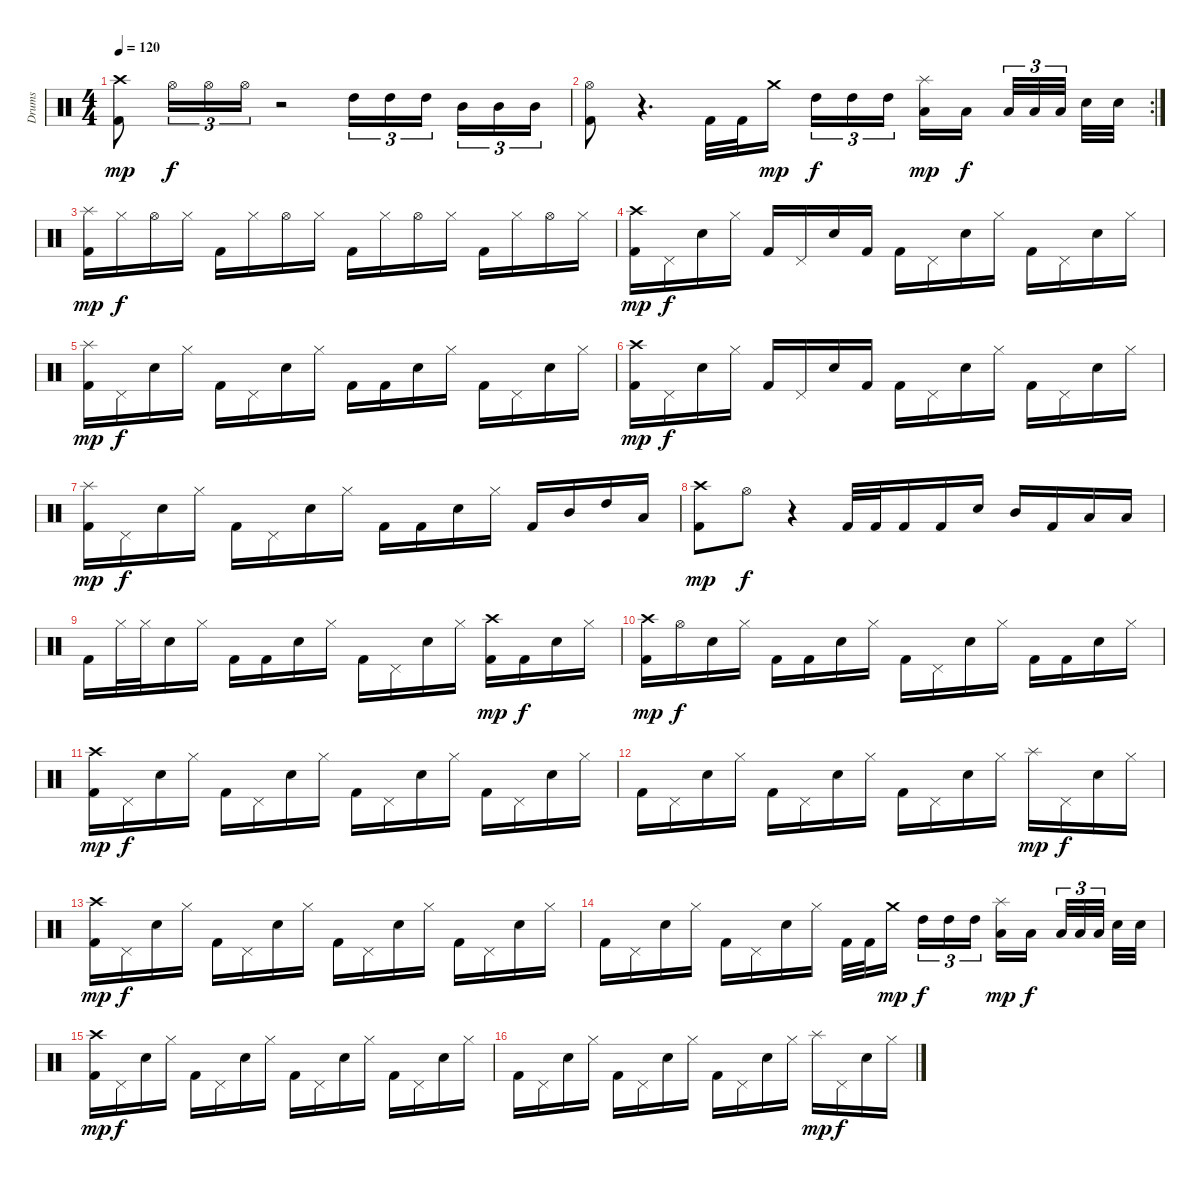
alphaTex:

\track ("Drums" "Drums") {instrument percussion}
\staff {score}
\articulation defaults
\ts (4 4)
\tempo 120
\clef neutral
\ks c
("Kick (hit) 2" "Crash high (hit)").8{dy mp} "Hi-Hat (open)".16{tu (3 2) dy f} "Hi-Hat (open)".16{tu (3 2)} "Hi-Hat (open)".16{tu (3 2)} r.2 "High Tom (hit)".16{tu (3 2)} "High Tom (hit)".16{tu (3 2)} "High Tom (hit)".16{tu (3 2)} "Mid Tom (hit)".16{tu (3 2)} "Mid Tom (hit)".16{tu (3 2)} "Mid Tom (hit)".16{tu (3 2)} |
\rc 2
("Hi-Hat (open)" "Kick (hit) 2").8 r.4{d} "Kick (hit) 2".32 "Kick (hit) 2".32 "Crash medium (hit)".16{dy mp} "High Tom (hit)".16{tu (3 2) dy f} "High Tom (hit)".16{tu (3 2)} "High Tom (hit)".16{tu (3 2)} ("Low Tom (hit)" "Splash (hit)").16{dy mp} "Low Tom (hit)".16{dy f} "Low Floor Tom (hit)".32{tu (3 2)} "Low Floor Tom (hit)".32{tu (3 2)} "Low Floor Tom (hit)".32{tu (3 2)} "Electric Snare (hit)".32 "Electric Snare (hit)".32 |
("Kick (hit) 2" "Splash (hit)").16{dy mp} "Hi-Hat (closed)".16{dy f} "Hi-Hat (open)".16 "Hi-Hat (closed)".16 "Kick (hit) 2".16 "Hi-Hat (closed)".16 "Hi-Hat (open)".16 "Hi-Hat (closed)".16 "Kick (hit) 2".16 "Hi-Hat (closed)".16 "Hi-Hat (open)".16 "Hi-Hat (closed)".16 "Kick (hit) 2".16 "Hi-Hat (closed)".16 "Hi-Hat (open)".16 "Hi-Hat (closed)".16 |
("Kick (hit) 2" "Crash high (hit)").16{dy mp} "Pedal Hi-Hat (hit)".16{dy f} "Electric Snare (hit)".16 "Hi-Hat (closed)".16 "Kick (hit) 2".16 "Pedal Hi-Hat (hit)".16 "Electric Snare (hit)".16 "Kick (hit) 2".16 "Kick (hit) 2".16 "Pedal Hi-Hat (hit)".16 "Electric Snare (hit)".16 "Hi-Hat (closed)".16 "Kick (hit) 2".16 "Pedal Hi-Hat (hit)".16 "Electric Snare (hit)".16 "Hi-Hat (closed)".16 |
("Kick (hit) 2" "Splash (hit)").16{dy mp} "Pedal Hi-Hat (hit)".16{dy f} "Electric Snare (hit)".16 "Hi-Hat (closed)".16 "Kick (hit) 2".16 "Pedal Hi-Hat (hit)".16 "Electric Snare (hit)".16 "Hi-Hat (closed)".16 "Kick (hit) 2".16 "Kick (hit) 2".16 "Electric Snare (hit)".16 "Hi-Hat (closed)".16 "Kick (hit) 2".16 "Pedal Hi-Hat (hit)".16 "Electric Snare (hit)".16 "Hi-Hat (closed)".16 |
("Kick (hit) 2" "Crash high (hit)").16{dy mp} "Pedal Hi-Hat (hit)".16{dy f} "Electric Snare (hit)".16 "Hi-Hat (closed)".16 "Kick (hit) 2".16 "Pedal Hi-Hat (hit)".16 "Electric Snare (hit)".16 "Kick (hit) 2".16 "Kick (hit) 2".16 "Pedal Hi-Hat (hit)".16 "Electric Snare (hit)".16 "Hi-Hat (closed)".16 "Kick (hit) 2".16 "Pedal Hi-Hat (hit)".16 "Electric Snare (hit)".16 "Hi-Hat (closed)".16 |
("Kick (hit) 2" "Splash (hit)").16{dy mp} "Pedal Hi-Hat (hit)".16{dy f} "Electric Snare (hit)".16 "Hi-Hat (closed)".16 "Kick (hit) 2".16 "Pedal Hi-Hat (hit)".16 "Electric Snare (hit)".16 "Hi-Hat (closed)".16 "Kick (hit) 2".16 "Kick (hit) 2".16 "Electric Snare (hit)".16 "Hi-Hat (closed)".16 "Kick (hit) 2".16 "Mid Tom (hit)".16 "High Tom (hit)".16 "Low Tom (hit)".16 |
("Kick (hit) 2" "Crash high (hit)").8{dy mp} "Hi-Hat (open)".8{dy f} r.4 "Kick (hit) 2".32 "Kick (hit) 2".32 "Kick (hit) 2".16 "Kick (hit) 2".16 "Electric Snare (hit)".16 "Mid Tom (hit)".16 "Kick (hit) 2".16 "Low Tom (hit)".16 "Low Tom (hit)".16 |
"Kick (hit) 2".16 "Hi-Hat (closed)".32 "Hi-Hat (closed)".32 "Electric Snare (hit)".16 "Hi-Hat (closed)".16 "Kick (hit) 2".16 "Kick (hit) 2".16 "Electric Snare (hit)".16 "Hi-Hat (closed)".16 "Kick (hit) 2".16 "Pedal Hi-Hat (hit)".16 "Electric Snare (hit)".16 "Hi-Hat (closed)".16 ("Kick (hit) 2" "Crash high (hit)").16{dy mp} "Kick (hit) 2".16{dy f} "Electric Snare (hit)".16 "Hi-Hat (closed)".16 |
("Kick (hit) 2" "Crash high (hit)").16{dy mp} "Hi-Hat (open)".16{dy f} "Electric Snare (hit)".16 "Hi-Hat (closed)".16 "Kick (hit) 2".16 "Kick (hit) 2".16 "Electric Snare (hit)".16 "Hi-Hat (closed)".16 "Kick (hit) 2".16 "Pedal Hi-Hat (hit)".16 "Electric Snare (hit)".16 "Hi-Hat (closed)".16 "Kick (hit) 2".16 "Kick (hit) 2".16 "Electric Snare (hit)".16 "Hi-Hat (closed)".16 |
("Kick (hit) 2" "Crash high (hit)").16{dy mp} "Pedal Hi-Hat (hit)".16{dy f} "Electric Snare (hit)".16 "Hi-Hat (closed)".16 "Kick (hit) 2".16 "Pedal Hi-Hat (hit)".16 "Electric Snare (hit)".16 "Hi-Hat (closed)".16 "Kick (hit) 2".16 "Pedal Hi-Hat (hit)".16 "Electric Snare (hit)".16 "Hi-Hat (closed)".16 "Kick (hit) 2".16 "Pedal Hi-Hat (hit)".16 "Electric Snare (hit)".16 "Hi-Hat (closed)".16 |
"Kick (hit) 2".16 "Pedal Hi-Hat (hit)".16 "Electric Snare (hit)".16 "Hi-Hat (closed)".16 "Kick (hit) 2".16 "Pedal Hi-Hat (hit)".16 "Electric Snare (hit)".16 "Hi-Hat (closed)".16 "Kick (hit) 2".16 "Pedal Hi-Hat (hit)".16 "Electric Snare (hit)".16 "Hi-Hat (closed)".16 "Splash (hit)".16{dy mp} "Pedal Hi-Hat (hit)".16{dy f} "Electric Snare (hit)".16 "Hi-Hat (closed)".16 |
("Kick (hit) 2" "Crash high (hit)").16{dy mp} "Pedal Hi-Hat (hit)".16{dy f} "Electric Snare (hit)".16 "Hi-Hat (closed)".16 "Kick (hit) 2".16 "Pedal Hi-Hat (hit)".16 "Electric Snare (hit)".16 "Hi-Hat (closed)".16 "Kick (hit) 2".16 "Pedal Hi-Hat (hit)".16 "Electric Snare (hit)".16 "Hi-Hat (closed)".16 "Kick (hit) 2".16 "Pedal Hi-Hat (hit)".16 "Electric Snare (hit)".16 "Hi-Hat (closed)".16 |
"Kick (hit) 2".16 "Pedal Hi-Hat (hit)".16 "Electric Snare (hit)".16 "Hi-Hat (closed)".16 "Kick (hit) 2".16 "Pedal Hi-Hat (hit)".16 "Electric Snare (hit)".16 "Hi-Hat (closed)".16 "Kick (hit) 2".32 "Kick (hit) 2".32 "Crash medium (hit)".16{dy mp} "High Tom (hit)".16{tu (3 2) dy f} "High Tom (hit)".16{tu (3 2)} "High Tom (hit)".16{tu (3 2)} ("Low Tom (hit)" "Splash (hit)").16{dy mp} "Low Tom (hit)".16{dy f} "Low Floor Tom (hit)".32{tu (3 2)} "Low Floor Tom (hit)".32{tu (3 2)} "Low Floor Tom (hit)".32{tu (3 2)} "Electric Snare (hit)".32 "Electric Snare (hit)".32 |
("Kick (hit) 2" "Crash high (hit)").16{dy mp} "Pedal Hi-Hat (hit)".16{dy f} "Electric Snare (hit)".16 "Hi-Hat (closed)".16 "Kick (hit) 2".16 "Pedal Hi-Hat (hit)".16 "Electric Snare (hit)".16 "Hi-Hat (closed)".16 "Kick (hit) 2".16 "Pedal Hi-Hat (hit)".16 "Electric Snare (hit)".16 "Hi-Hat (closed)".16 "Kick (hit) 2".16 "Pedal Hi-Hat (hit)".16 "Electric Snare (hit)".16 "Hi-Hat (closed)".16 |
"Kick (hit) 2".16 "Pedal Hi-Hat (hit)".16 "Electric Snare (hit)".16 "Hi-Hat (closed)".16 "Kick (hit) 2".16 "Pedal Hi-Hat (hit)".16 "Electric Snare (hit)".16 "Hi-Hat (closed)".16 "Kick (hit) 2".16 "Pedal Hi-Hat (hit)".16 "Electric Snare (hit)".16 "Hi-Hat (closed)".16 "Splash (hit)".16{dy mp} "Pedal Hi-Hat (hit)".16{dy f} "Electric Snare (hit)".16 "Hi-Hat (closed)".16
